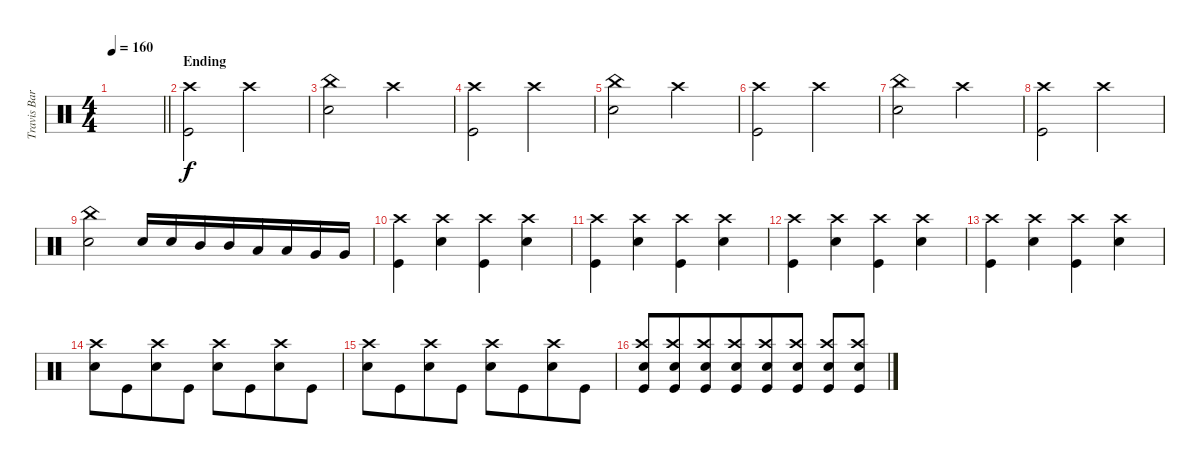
\track ("Travis Barker Drums" "Travis Bar") {instrument percussion}
\staff {score}
\articulation defaults
\ts (4 4)
\tempo 160
\clef neutral
\barLineRight lightlight
\ks c
|
\section ("" "Ending")
("Kick (hit)" "Crash high (hit)").2{beam merge} "Crash high (hit)".2 |
("Snare (hit) 2" "China (hit)").2 "Crash high (hit)".2 |
("Kick (hit)" "Crash high (hit)").2{beam merge} "Crash high (hit)".2 |
("Snare (hit) 2" "China (hit)").2 "Crash high (hit)".2 |
("Kick (hit)" "Crash high (hit)").2{beam merge} "Crash high (hit)".2 |
("Snare (hit) 2" "China (hit)").2 "Crash high (hit)".2 |
("Kick (hit)" "Crash high (hit)").2{beam merge} "Crash high (hit)".2 |
("Snare (hit) 2" "China (hit)").2 "Snare (hit) 2".16{beam merge} "Snare (hit) 2".16 "Mid Tom (hit)".16 "Mid Tom (hit)".16{beam merge} "Low Tom (hit)".16{beam merge} "Low Tom (hit)".16{beam merge} "Very Low Tom (hit)".16 "Very Low Tom (hit)".16 |
("Crash high (hit)" "Kick (hit)").4 ("Crash high (hit)" "Snare (hit) 2").4 ("Crash high (hit)" "Kick (hit)").4 ("Crash high (hit)" "Snare (hit) 2").4 |
("Crash high (hit)" "Kick (hit)").4 ("Crash high (hit)" "Snare (hit) 2").4 ("Crash high (hit)" "Kick (hit)").4 ("Crash high (hit)" "Snare (hit) 2").4 |
("Crash high (hit)" "Kick (hit)").4 ("Crash high (hit)" "Snare (hit) 2").4 ("Crash high (hit)" "Kick (hit)").4 ("Crash high (hit)" "Snare (hit) 2").4 |
("Crash high (hit)" "Kick (hit)").4 ("Crash high (hit)" "Snare (hit) 2").4 ("Crash high (hit)" "Kick (hit)").4 ("Crash high (hit)" "Snare (hit) 2").4 |
("Snare (hit) 2" "Crash high (hit)").8{beam merge} "Kick (hit)".8{beam merge} ("Snare (hit) 2" "Crash high (hit)").8 "Kick (hit)".8 ("Snare (hit) 2" "Crash high (hit)").8{beam merge} "Kick (hit)".8{beam merge} ("Snare (hit) 2" "Crash high (hit)").8 "Kick (hit)".8 |
("Snare (hit) 2" "Crash high (hit)").8{beam merge} "Kick (hit)".8{beam merge} ("Snare (hit) 2" "Crash high (hit)").8 "Kick (hit)".8 ("Snare (hit) 2" "Crash high (hit)").8{beam merge} "Kick (hit)".8{beam merge} ("Snare (hit) 2" "Crash high (hit)").8 "Kick (hit)".8 |
("Crash high (hit)" "Snare (hit) 2" "Kick (hit)").8 ("Crash high (hit)" "Snare (hit) 2" "Kick (hit)").8{beam merge} ("Crash high (hit)" "Snare (hit) 2" "Kick (hit)").8{beam merge} ("Crash high (hit)" "Snare (hit) 2" "Kick (hit)").8{beam merge} ("Crash high (hit)" "Snare (hit) 2" "Kick (hit)").8 ("Crash high (hit)" "Snare (hit) 2" "Kick (hit)").8 ("Crash high (hit)" "Snare (hit) 2" "Kick (hit)").8{beam merge} ("Crash high (hit)" "Snare (hit) 2" "Kick (hit)").8
